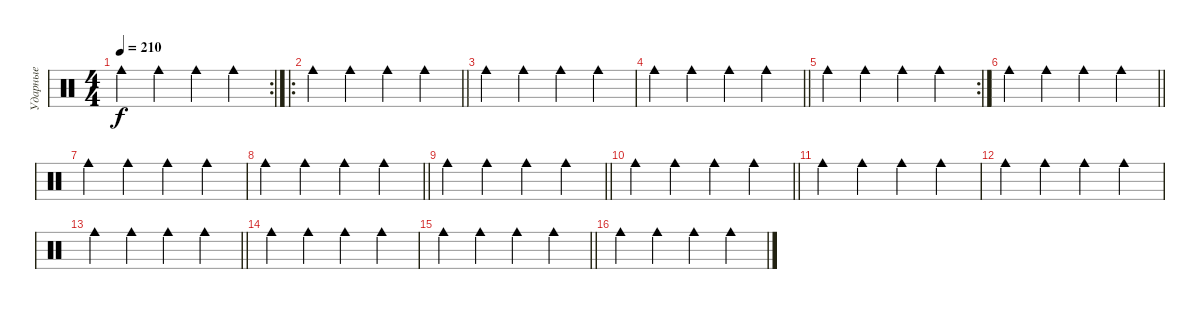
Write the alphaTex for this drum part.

\track ("Ударные" "Ударные") {mute instrument percussion}
\staff {score}
\articulation defaults
\rc 2
\ts (4 4)
\tempo 210
\clef neutral
\ks c "Cowbell medium (hit)".4{dy f} "Cowbell medium (hit)".4 "Cowbell medium (hit)".4 "Cowbell medium (hit)".4
|
\ro
\barLineRight lightlight "Cowbell medium (hit)".4 "Cowbell medium (hit)".4 "Cowbell medium (hit)".4 "Cowbell medium (hit)".4
|
"Cowbell medium (hit)".4 "Cowbell medium (hit)".4 "Cowbell medium (hit)".4 "Cowbell medium (hit)".4 |
\barLineRight lightlight "Cowbell medium (hit)".4 "Cowbell medium (hit)".4 "Cowbell medium (hit)".4 "Cowbell medium (hit)".4
|
\rc 2 "Cowbell medium (hit)".4 "Cowbell medium (hit)".4 "Cowbell medium (hit)".4 "Cowbell medium (hit)".4
|
\barLineRight lightlight "Cowbell medium (hit)".4 "Cowbell medium (hit)".4 "Cowbell medium (hit)".4 "Cowbell medium (hit)".4
|
"Cowbell medium (hit)".4 "Cowbell medium (hit)".4 "Cowbell medium (hit)".4 "Cowbell medium (hit)".4 |
\barLineRight lightlight "Cowbell medium (hit)".4 "Cowbell medium (hit)".4 "Cowbell medium (hit)".4 "Cowbell medium (hit)".4
|
\barLineRight lightlight "Cowbell medium (hit)".4 "Cowbell medium (hit)".4 "Cowbell medium (hit)".4 "Cowbell medium (hit)".4
|
\barLineRight lightlight "Cowbell medium (hit)".4 "Cowbell medium (hit)".4 "Cowbell medium (hit)".4 "Cowbell medium (hit)".4
|
"Cowbell medium (hit)".4 "Cowbell medium (hit)".4 "Cowbell medium (hit)".4 "Cowbell medium (hit)".4 |
"Cowbell medium (hit)".4 "Cowbell medium (hit)".4 "Cowbell medium (hit)".4 "Cowbell medium (hit)".4 |
\barLineRight lightlight "Cowbell medium (hit)".4 "Cowbell medium (hit)".4 "Cowbell medium (hit)".4 "Cowbell medium (hit)".4
|
"Cowbell medium (hit)".4 "Cowbell medium (hit)".4 "Cowbell medium (hit)".4 "Cowbell medium (hit)".4 |
\barLineRight lightlight "Cowbell medium (hit)".4 "Cowbell medium (hit)".4 "Cowbell medium (hit)".4 "Cowbell medium (hit)".4
|
"Cowbell medium (hit)".4 "Cowbell medium (hit)".4 "Cowbell medium (hit)".4 "Cowbell medium (hit)".4
